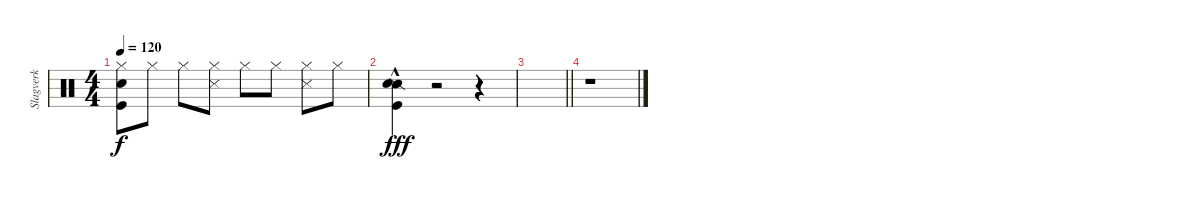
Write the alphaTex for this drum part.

\track ("Slagverk" "Slagverk") {instrument percussion}
\staff {score}
\articulation defaults
\ts (4 4)
\tempo 120
\clef neutral
\ks aminor
("Hi-Hat (closed)" "Snare (hit) 2" "Kick (hit)").8{dy f} "Hi-Hat (closed)".8 "Hi-Hat (closed)".8 ("Hi-Hat (closed)" "Snare (side stick) 3").8 "Hi-Hat (closed)".8 "Hi-Hat (closed)".8 ("Hi-Hat (closed)" "Snare (side stick) 3").8 "Hi-Hat (closed)".8 |
("Snare (side stick) 2"{hac} "Snare (hit) 2"{hac} "Kick (hit)"{hac}).4{dy fff} r.2 r.4 |
\barLineRight lightlight
|
r.1
